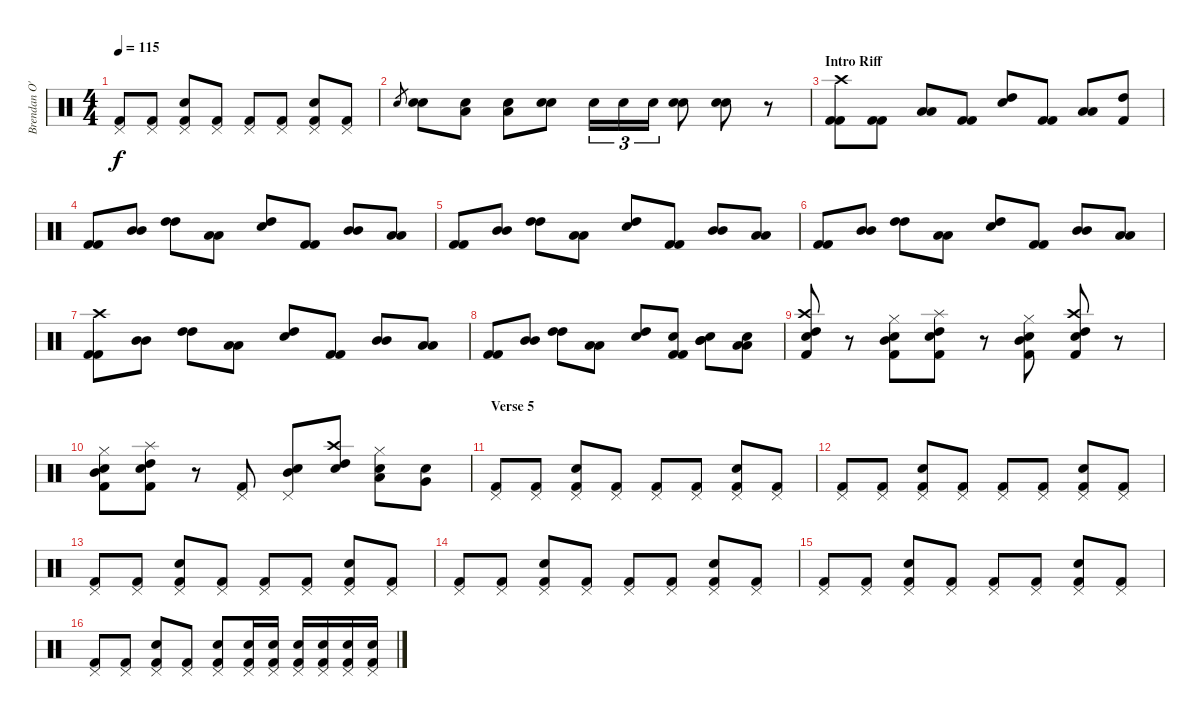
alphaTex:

\track ("Brendan O'Neill" "Brendan O'") {instrument percussion}
\staff {score}
\articulation defaults
\ts (4 4)
\tempo 115
\clef neutral
\ks c
("Pedal Hi-Hat (hit)" "Kick (hit) 2").8{dy f} ("Pedal Hi-Hat (hit)" "Kick (hit) 2").8 ("Pedal Hi-Hat (hit)" "Snare (hit) 2" "Kick (hit) 2").8 ("Pedal Hi-Hat (hit)" "Kick (hit) 2").8 ("Pedal Hi-Hat (hit)" "Kick (hit) 2").8 ("Pedal Hi-Hat (hit)" "Kick (hit) 2").8 ("Pedal Hi-Hat (hit)" "Snare (hit) 2" "Kick (hit) 2").8 ("Pedal Hi-Hat (hit)" "Kick (hit) 2").8 |
"Electric Snare (hit)"{sl}.8{gr} ("Snare (hit) 2" "Electric Snare (hit)").8 ("Low Tom (hit)" "Electric Snare (hit)").8 ("Low Tom (hit)" "Electric Snare (hit)").8 ("Snare (hit) 2" "Electric Snare (hit)").8 "Electric Snare (hit)".16{tu (3 2)} "Electric Snare (hit)".16{tu (3 2)} "Electric Snare (hit)".16{tu (3 2)} ("Snare (hit) 2" "Electric Snare (hit)").8 ("Snare (hit) 2" "Electric Snare (hit)").8 r.8 |
\section ("" "Intro Riff")
("Crash high (hit)" "Kick (hit) 2" "Kick (hit) 2").8 ("Kick (hit) 2" "Kick (hit) 2").8 ("Low Tom (hit)" "Low Tom (hit)").8 ("Kick (hit) 2" "Kick (hit) 2").8 ("High Tom (hit)" "Electric Snare (hit)").8 ("Kick (hit) 2" "Kick (hit) 2").8 ("Low Tom (hit)" "Low Tom (hit)").8 ("High Tom (hit)" "Kick (hit) 2").8 |
("Kick (hit) 2" "Kick (hit) 2").8 ("Mid Tom (hit)" "Mid Tom (hit)").8 ("High Tom (hit)" "High Tom (hit)").8 ("Low Tom (hit)" "Low Tom (hit)").8 ("High Tom (hit)" "Electric Snare (hit)").8 ("Kick (hit) 2" "Kick (hit) 2").8 ("Mid Tom (hit)" "Mid Tom (hit)").8 ("Low Tom (hit)" "Low Tom (hit)").8 |
("Kick (hit) 2" "Kick (hit) 2").8 ("Mid Tom (hit)" "Mid Tom (hit)").8 ("High Tom (hit)" "High Tom (hit)").8 ("Low Tom (hit)" "Low Tom (hit)").8 ("High Tom (hit)" "Electric Snare (hit)").8 ("Kick (hit) 2" "Kick (hit) 2").8 ("Mid Tom (hit)" "Mid Tom (hit)").8 ("Low Tom (hit)" "Low Tom (hit)").8 |
("Kick (hit) 2" "Kick (hit) 2").8 ("Mid Tom (hit)" "Mid Tom (hit)").8 ("High Tom (hit)" "High Tom (hit)").8 ("Low Tom (hit)" "Low Tom (hit)").8 ("High Tom (hit)" "Electric Snare (hit)").8 ("Kick (hit) 2" "Kick (hit) 2").8 ("Mid Tom (hit)" "Mid Tom (hit)").8 ("Low Tom (hit)" "Low Tom (hit)").8 |
("Crash high (hit)" "Kick (hit) 2" "Kick (hit) 2").8 ("Mid Tom (hit)" "Mid Tom (hit)").8 ("High Tom (hit)" "High Tom (hit)").8 ("Low Tom (hit)" "Low Tom (hit)").8 ("High Tom (hit)" "Electric Snare (hit)").8 ("Kick (hit) 2" "Kick (hit) 2").8 ("Mid Tom (hit)" "Mid Tom (hit)").8 ("Low Tom (hit)" "Low Tom (hit)").8 |
("Kick (hit) 2" "Kick (hit) 2").8 ("Mid Tom (hit)" "Mid Tom (hit)").8 ("High Tom (hit)" "High Tom (hit)").8 ("Low Tom (hit)" "Low Tom (hit)").8 ("High Tom (hit)" "Electric Snare (hit)").8 ("Electric Snare (hit)" "Kick (hit) 2" "Kick (hit) 2").8 ("Snare (hit) 2" "Mid Tom (hit)" "Mid Tom (hit)").8 ("Electric Snare (hit)" "Low Tom (hit)" "Low Tom (hit)").8 |
("Crash high (hit)" "High Tom (hit)" "Electric Snare (hit)" "Kick (hit) 2").8 r.8 ("Hi-Hat (closed)" "Mid Tom (hit)" "Snare (hit) 2" "Kick (hit) 2").8 ("Splash (hit)" "High Tom (hit)" "Electric Snare (hit)" "Kick (hit) 2").8 r.8 ("Hi-Hat (closed)" "Mid Tom (hit)" "Snare (hit) 2" "Kick (hit) 2").8 ("Crash high (hit)" "High Tom (hit)" "Electric Snare (hit)" "Kick (hit) 2").8 r.8 |
("Hi-Hat (closed)" "Mid Tom (hit)" "Snare (hit) 2" "Kick (hit) 2").8 ("Splash (hit)" "High Tom (hit)" "Electric Snare (hit)" "Kick (hit) 2").8 r.8 ("Pedal Hi-Hat (hit)" "Kick (hit) 2").8 ("Pedal Hi-Hat (hit)" "Mid Tom (hit)" "Electric Snare (hit)").8 ("Crash high (hit)" "High Tom (hit)" "Electric Snare (hit)").8 ("Hi-Hat (closed)" "Low Tom (hit)" "Snare (hit) 2").8 ("Very Low Tom (hit)" "Snare (hit) 2").8 |
\section ("" "Verse 5")
("Pedal Hi-Hat (hit)" "Kick (hit) 2").8 ("Pedal Hi-Hat (hit)" "Kick (hit) 2").8 ("Pedal Hi-Hat (hit)" "Snare (hit) 2" "Kick (hit) 2").8 ("Pedal Hi-Hat (hit)" "Kick (hit) 2").8 ("Pedal Hi-Hat (hit)" "Kick (hit) 2").8 ("Pedal Hi-Hat (hit)" "Kick (hit) 2").8 ("Pedal Hi-Hat (hit)" "Snare (hit) 2" "Kick (hit) 2").8 ("Pedal Hi-Hat (hit)" "Kick (hit) 2").8 |
("Pedal Hi-Hat (hit)" "Kick (hit) 2").8 ("Pedal Hi-Hat (hit)" "Kick (hit) 2").8 ("Pedal Hi-Hat (hit)" "Snare (hit) 2" "Kick (hit) 2").8 ("Pedal Hi-Hat (hit)" "Kick (hit) 2").8 ("Pedal Hi-Hat (hit)" "Kick (hit) 2").8 ("Pedal Hi-Hat (hit)" "Kick (hit) 2").8 ("Pedal Hi-Hat (hit)" "Snare (hit) 2" "Kick (hit) 2").8 ("Pedal Hi-Hat (hit)" "Kick (hit) 2").8 |
("Pedal Hi-Hat (hit)" "Kick (hit) 2").8 ("Pedal Hi-Hat (hit)" "Kick (hit) 2").8 ("Pedal Hi-Hat (hit)" "Snare (hit) 2" "Kick (hit) 2").8 ("Pedal Hi-Hat (hit)" "Kick (hit) 2").8 ("Pedal Hi-Hat (hit)" "Kick (hit) 2").8 ("Pedal Hi-Hat (hit)" "Kick (hit) 2").8 ("Pedal Hi-Hat (hit)" "Snare (hit) 2" "Kick (hit) 2").8 ("Pedal Hi-Hat (hit)" "Kick (hit) 2").8 |
("Pedal Hi-Hat (hit)" "Kick (hit) 2").8 ("Pedal Hi-Hat (hit)" "Kick (hit) 2").8 ("Pedal Hi-Hat (hit)" "Snare (hit) 2" "Kick (hit) 2").8 ("Pedal Hi-Hat (hit)" "Kick (hit) 2").8 ("Pedal Hi-Hat (hit)" "Kick (hit) 2").8 ("Pedal Hi-Hat (hit)" "Kick (hit) 2").8 ("Pedal Hi-Hat (hit)" "Snare (hit) 2" "Kick (hit) 2").8 ("Pedal Hi-Hat (hit)" "Kick (hit) 2").8 |
("Pedal Hi-Hat (hit)" "Kick (hit) 2").8 ("Pedal Hi-Hat (hit)" "Kick (hit) 2").8 ("Pedal Hi-Hat (hit)" "Snare (hit) 2" "Kick (hit) 2").8 ("Pedal Hi-Hat (hit)" "Kick (hit) 2").8 ("Pedal Hi-Hat (hit)" "Kick (hit) 2").8 ("Pedal Hi-Hat (hit)" "Kick (hit) 2").8 ("Pedal Hi-Hat (hit)" "Snare (hit) 2" "Kick (hit) 2").8 ("Pedal Hi-Hat (hit)" "Kick (hit) 2").8 |
("Pedal Hi-Hat (hit)" "Kick (hit) 2").8 ("Pedal Hi-Hat (hit)" "Kick (hit) 2").8 ("Pedal Hi-Hat (hit)" "Snare (hit) 2" "Kick (hit) 2").8 ("Pedal Hi-Hat (hit)" "Kick (hit) 2").8 ("Pedal Hi-Hat (hit)" "Snare (hit) 2" "Kick (hit) 2").8 ("Pedal Hi-Hat (hit)" "Electric Snare (hit)" "Kick (hit) 2").16 ("Pedal Hi-Hat (hit)" "Electric Snare (hit)" "Kick (hit) 2").16 ("Pedal Hi-Hat (hit)" "Snare (hit) 2" "Kick (hit) 2").16 ("Pedal Hi-Hat (hit)" "Snare (hit) 2" "Kick (hit) 2").16 ("Pedal Hi-Hat (hit)" "Snare (hit) 2" "Kick (hit) 2").16 ("Pedal Hi-Hat (hit)" "Snare (hit) 2" "Kick (hit) 2").16
